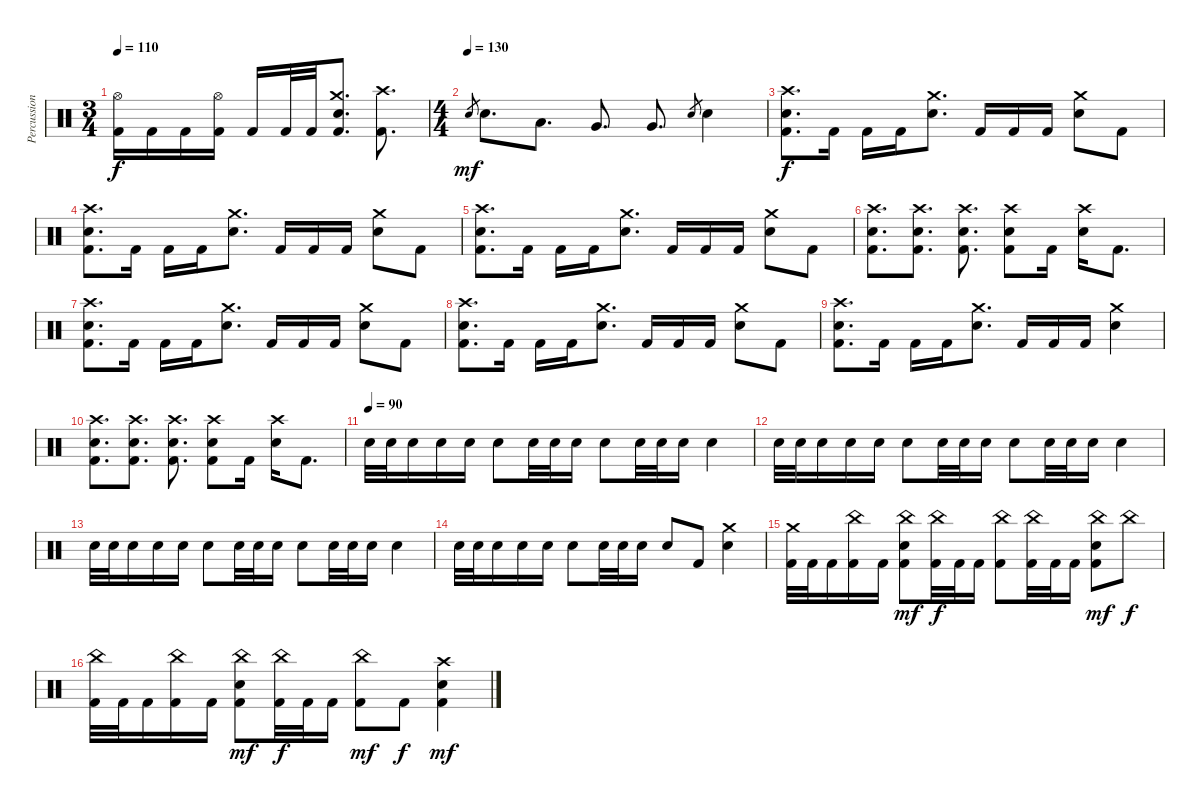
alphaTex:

\track ("Percussion" "Percussion") {instrument percussion}
\staff {score}
\articulation defaults
\ts (3 4)
\tempo 110
\clef neutral
\ks c
("Hi-Hat (open)" "Kick (hit) 2").16{dy f} "Kick (hit) 2".16 "Kick (hit) 2".16 ("Hi-Hat (open)" "Kick (hit) 2").16 "Kick (hit) 2".16 "Kick (hit) 2".32 "Kick (hit) 2".32 ("Crash medium (hit)" "Electric Snare (hit)" "Kick (hit) 2").8{d} ("Crash high (hit)" "Kick (hit) 2").8{d} |
\ts (4 4)
\tempo (130)
"Electric Snare (hit)".8{gr dy mf} "Electric Snare (hit)".8{d} "Low Tom (hit)".8{d} "Very Low Tom (hit)".8{d} "Very Low Tom (hit)".8{d} "Electric Snare (hit)".8{gr} "Electric Snare (hit)".4 |
("Crash high (hit)" "Electric Snare (hit)" "Kick (hit) 2").8{d dy f} "Kick (hit) 2".16 "Kick (hit) 2".16 "Kick (hit) 2".16 ("Crash medium (hit)" "Electric Snare (hit)").8{d} "Kick (hit) 2".16 "Kick (hit) 2".16 "Kick (hit) 2".16 ("Crash medium (hit)" "Electric Snare (hit)").8 "Kick (hit) 2".8 |
("Crash high (hit)" "Electric Snare (hit)" "Kick (hit) 2").8{d} "Kick (hit) 2".16 "Kick (hit) 2".16 "Kick (hit) 2".16 ("Crash medium (hit)" "Electric Snare (hit)").8{d} "Kick (hit) 2".16 "Kick (hit) 2".16 "Kick (hit) 2".16 ("Crash medium (hit)" "Electric Snare (hit)").8 "Kick (hit) 2".8 |
("Crash high (hit)" "Electric Snare (hit)" "Kick (hit) 2").8{d} "Kick (hit) 2".16 "Kick (hit) 2".16 "Kick (hit) 2".16 ("Crash medium (hit)" "Electric Snare (hit)").8{d} "Kick (hit) 2".16 "Kick (hit) 2".16 "Kick (hit) 2".16 ("Crash medium (hit)" "Electric Snare (hit)").8 "Kick (hit) 2".8 |
("Crash high (hit)" "Electric Snare (hit)" "Kick (hit) 2").8{d} ("Crash high (hit)" "Electric Snare (hit)" "Kick (hit) 2").8{d} ("Crash high (hit)" "Electric Snare (hit)" "Kick (hit) 2").8{d} ("Crash high (hit)" "Electric Snare (hit)" "Kick (hit) 2").8 "Kick (hit) 2".16 ("Crash high (hit)" "Electric Snare (hit)").16 "Kick (hit) 2".8{d} |
("Crash high (hit)" "Electric Snare (hit)" "Kick (hit) 2").8{d} "Kick (hit) 2".16 "Kick (hit) 2".16 "Kick (hit) 2".16 ("Crash medium (hit)" "Electric Snare (hit)").8{d} "Kick (hit) 2".16 "Kick (hit) 2".16 "Kick (hit) 2".16 ("Crash medium (hit)" "Electric Snare (hit)").8 "Kick (hit) 2".8 |
("Crash high (hit)" "Electric Snare (hit)" "Kick (hit) 2").8{d} "Kick (hit) 2".16 "Kick (hit) 2".16 "Kick (hit) 2".16 ("Crash medium (hit)" "Electric Snare (hit)").8{d} "Kick (hit) 2".16 "Kick (hit) 2".16 "Kick (hit) 2".16 ("Crash medium (hit)" "Electric Snare (hit)").8 "Kick (hit) 2".8 |
("Crash high (hit)" "Electric Snare (hit)" "Kick (hit) 2").8{d} "Kick (hit) 2".16 "Kick (hit) 2".16 "Kick (hit) 2".16 ("Crash medium (hit)" "Electric Snare (hit)").8{d} "Kick (hit) 2".16 "Kick (hit) 2".16 "Kick (hit) 2".16 ("Crash medium (hit)" "Electric Snare (hit)").4 |
("Crash high (hit)" "Electric Snare (hit)" "Kick (hit) 2").8{d} ("Crash high (hit)" "Electric Snare (hit)" "Kick (hit) 2").8{d} ("Crash high (hit)" "Electric Snare (hit)" "Kick (hit) 2").8{d} ("Crash high (hit)" "Electric Snare (hit)" "Kick (hit) 2").8 "Kick (hit) 2".16 ("Crash high (hit)" "Electric Snare (hit)").16 "Kick (hit) 2".8{d} |
\tempo (90)
"Electric Snare (hit)".32 "Electric Snare (hit)".32 "Electric Snare (hit)".16 "Electric Snare (hit)".16 "Electric Snare (hit)".16 "Electric Snare (hit)".8 "Electric Snare (hit)".32 "Electric Snare (hit)".32 "Electric Snare (hit)".16 "Electric Snare (hit)".8 "Electric Snare (hit)".32 "Electric Snare (hit)".32 "Electric Snare (hit)".16 "Electric Snare (hit)".4 |
"Electric Snare (hit)".32 "Electric Snare (hit)".32 "Electric Snare (hit)".16 "Electric Snare (hit)".16 "Electric Snare (hit)".16 "Electric Snare (hit)".8 "Electric Snare (hit)".32 "Electric Snare (hit)".32 "Electric Snare (hit)".16 "Electric Snare (hit)".8 "Electric Snare (hit)".32 "Electric Snare (hit)".32 "Electric Snare (hit)".16 "Electric Snare (hit)".4 |
"Electric Snare (hit)".32 "Electric Snare (hit)".32 "Electric Snare (hit)".16 "Electric Snare (hit)".16 "Electric Snare (hit)".16 "Electric Snare (hit)".8 "Electric Snare (hit)".32 "Electric Snare (hit)".32 "Electric Snare (hit)".16 "Electric Snare (hit)".8 "Electric Snare (hit)".32 "Electric Snare (hit)".32 "Electric Snare (hit)".16 "Electric Snare (hit)".4 |
"Electric Snare (hit)".32 "Electric Snare (hit)".32 "Electric Snare (hit)".16 "Electric Snare (hit)".16 "Electric Snare (hit)".16 "Electric Snare (hit)".8 "Electric Snare (hit)".32 "Electric Snare (hit)".32 "Electric Snare (hit)".16 "Electric Snare (hit)".8 "Kick (hit) 2".8 ("Crash medium (hit)" "Electric Snare (hit)").4 |
("Crash medium (hit)" "Kick (hit) 2").32 "Kick (hit) 2".32 "Kick (hit) 2".16 ("China (hit)" "Kick (hit) 2").16 "Kick (hit) 2".16 ("China (hit)" "Electric Snare (hit)" "Kick (hit) 2").8{dy mf} ("China (hit)" "Kick (hit) 2").32{dy f} "Kick (hit) 2".32 "Kick (hit) 2".16 ("China (hit)" "Kick (hit) 2").8 ("China (hit)" "Kick (hit) 2").32 "Kick (hit) 2".32 "Kick (hit) 2".16 ("China (hit)" "Electric Snare (hit)" "Kick (hit) 2").8{dy mf} "China (hit)".8{dy f} |
("China (hit)" "Kick (hit) 2").32 "Kick (hit) 2".32 "Kick (hit) 2".16 ("China (hit)" "Kick (hit) 2").16 "Kick (hit) 2".16 ("China (hit)" "Electric Snare (hit)" "Kick (hit) 2").8{dy mf} ("China (hit)" "Kick (hit) 2").32{dy f} "Kick (hit) 2".32 "Kick (hit) 2".16 ("China (hit)" "Kick (hit) 2").8{dy mf} "Kick (hit) 2".8{dy f} ("Crash high (hit)" "Electric Snare (hit)" "Kick (hit) 2").4{dy mf}
